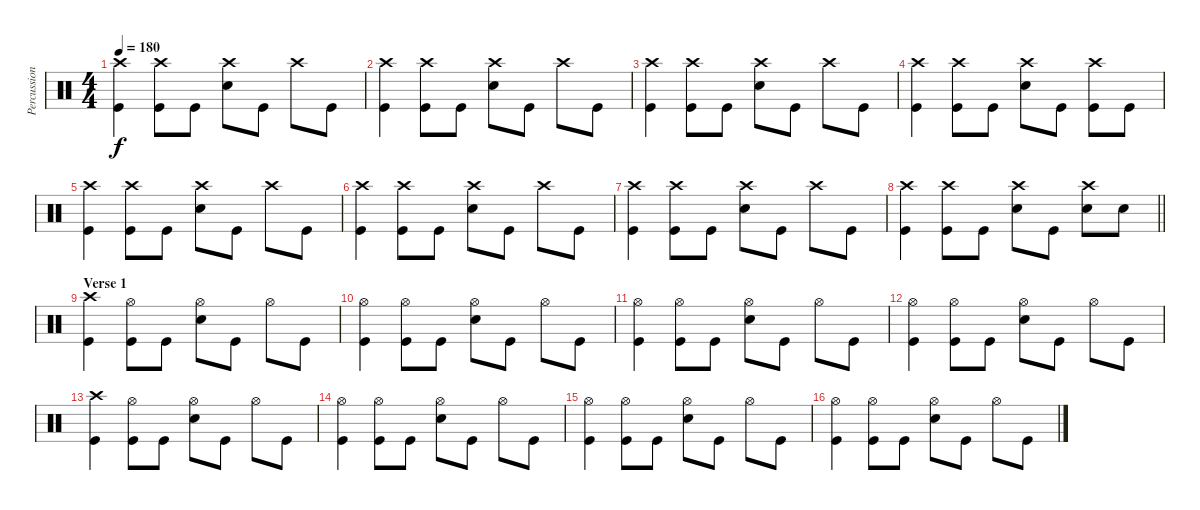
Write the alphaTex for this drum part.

\track ("Percussion" "Percussion") {instrument percussion}
\staff {score}
\articulation defaults
\ts (4 4)
\tempo 180
\clef neutral
\ks c
("Crash high (hit)" "Kick (hit)").4{dy f} ("Crash high (hit)" "Kick (hit)").8 "Kick (hit)".8 ("Snare (hit) 2" "Crash high (hit)").8 "Kick (hit)".8 "Crash high (hit)".8 "Kick (hit)".8 |
("Crash high (hit)" "Kick (hit)").4 ("Crash high (hit)" "Kick (hit)").8 "Kick (hit)".8 ("Snare (hit) 2" "Crash high (hit)").8 "Kick (hit)".8 "Crash high (hit)".8 "Kick (hit)".8 |
("Crash high (hit)" "Kick (hit)").4 ("Crash high (hit)" "Kick (hit)").8 "Kick (hit)".8 ("Snare (hit) 2" "Crash high (hit)").8 "Kick (hit)".8 "Crash high (hit)".8 "Kick (hit)".8 |
("Crash high (hit)" "Kick (hit)").4 ("Crash high (hit)" "Kick (hit)").8 "Kick (hit)".8 ("Snare (hit) 2" "Crash high (hit)").8 "Kick (hit)".8 ("Crash high (hit)" "Kick (hit)").8 "Kick (hit)".8 |
("Crash high (hit)" "Kick (hit)").4 ("Crash high (hit)" "Kick (hit)").8 "Kick (hit)".8 ("Snare (hit) 2" "Crash high (hit)").8 "Kick (hit)".8 "Crash high (hit)".8 "Kick (hit)".8 |
("Crash high (hit)" "Kick (hit)").4 ("Crash high (hit)" "Kick (hit)").8 "Kick (hit)".8 ("Snare (hit) 2" "Crash high (hit)").8 "Kick (hit)".8 "Crash high (hit)".8 "Kick (hit)".8 |
("Crash high (hit)" "Kick (hit)").4 ("Crash high (hit)" "Kick (hit)").8 "Kick (hit)".8 ("Snare (hit) 2" "Crash high (hit)").8 "Kick (hit)".8 "Crash high (hit)".8 "Kick (hit)".8 |
\barLineRight lightlight
("Crash high (hit)" "Kick (hit)").4 ("Crash high (hit)" "Kick (hit)").8 "Kick (hit)".8 ("Snare (hit) 2" "Crash high (hit)").8 "Kick (hit)".8 ("Snare (hit) 2" "Crash high (hit)").8 "Snare (hit) 2".8 |
\section ("" "Verse 1")
("Crash high (hit)" "Kick (hit)").4 ("Hi-Hat (open)" "Kick (hit)").8 "Kick (hit)".8 ("Snare (hit) 2" "Hi-Hat (open)").8 "Kick (hit)".8 "Hi-Hat (open)".8 "Kick (hit)".8 |
("Hi-Hat (open)" "Kick (hit)").4 ("Hi-Hat (open)" "Kick (hit)").8 "Kick (hit)".8 ("Snare (hit) 2" "Hi-Hat (open)").8 "Kick (hit)".8 "Hi-Hat (open)".8 "Kick (hit)".8 |
("Hi-Hat (open)" "Kick (hit)").4 ("Hi-Hat (open)" "Kick (hit)").8 "Kick (hit)".8 ("Snare (hit) 2" "Hi-Hat (open)").8 "Kick (hit)".8 "Hi-Hat (open)".8 "Kick (hit)".8 |
("Hi-Hat (open)" "Kick (hit)").4 ("Hi-Hat (open)" "Kick (hit)").8 "Kick (hit)".8 ("Snare (hit) 2" "Hi-Hat (open)").8 "Kick (hit)".8 "Hi-Hat (open)".8 "Kick (hit)".8 |
("Crash high (hit)" "Kick (hit)").4 ("Hi-Hat (open)" "Kick (hit)").8 "Kick (hit)".8 ("Snare (hit) 2" "Hi-Hat (open)").8 "Kick (hit)".8 "Hi-Hat (open)".8 "Kick (hit)".8 |
("Hi-Hat (open)" "Kick (hit)").4 ("Hi-Hat (open)" "Kick (hit)").8 "Kick (hit)".8 ("Snare (hit) 2" "Hi-Hat (open)").8 "Kick (hit)".8 "Hi-Hat (open)".8 "Kick (hit)".8 |
("Hi-Hat (open)" "Kick (hit)").4 ("Hi-Hat (open)" "Kick (hit)").8 "Kick (hit)".8 ("Snare (hit) 2" "Hi-Hat (open)").8 "Kick (hit)".8 "Hi-Hat (open)".8 "Kick (hit)".8 |
("Hi-Hat (open)" "Kick (hit)").4 ("Hi-Hat (open)" "Kick (hit)").8 "Kick (hit)".8 ("Snare (hit) 2" "Hi-Hat (open)").8 "Kick (hit)".8 "Hi-Hat (open)".8 "Kick (hit)".8
